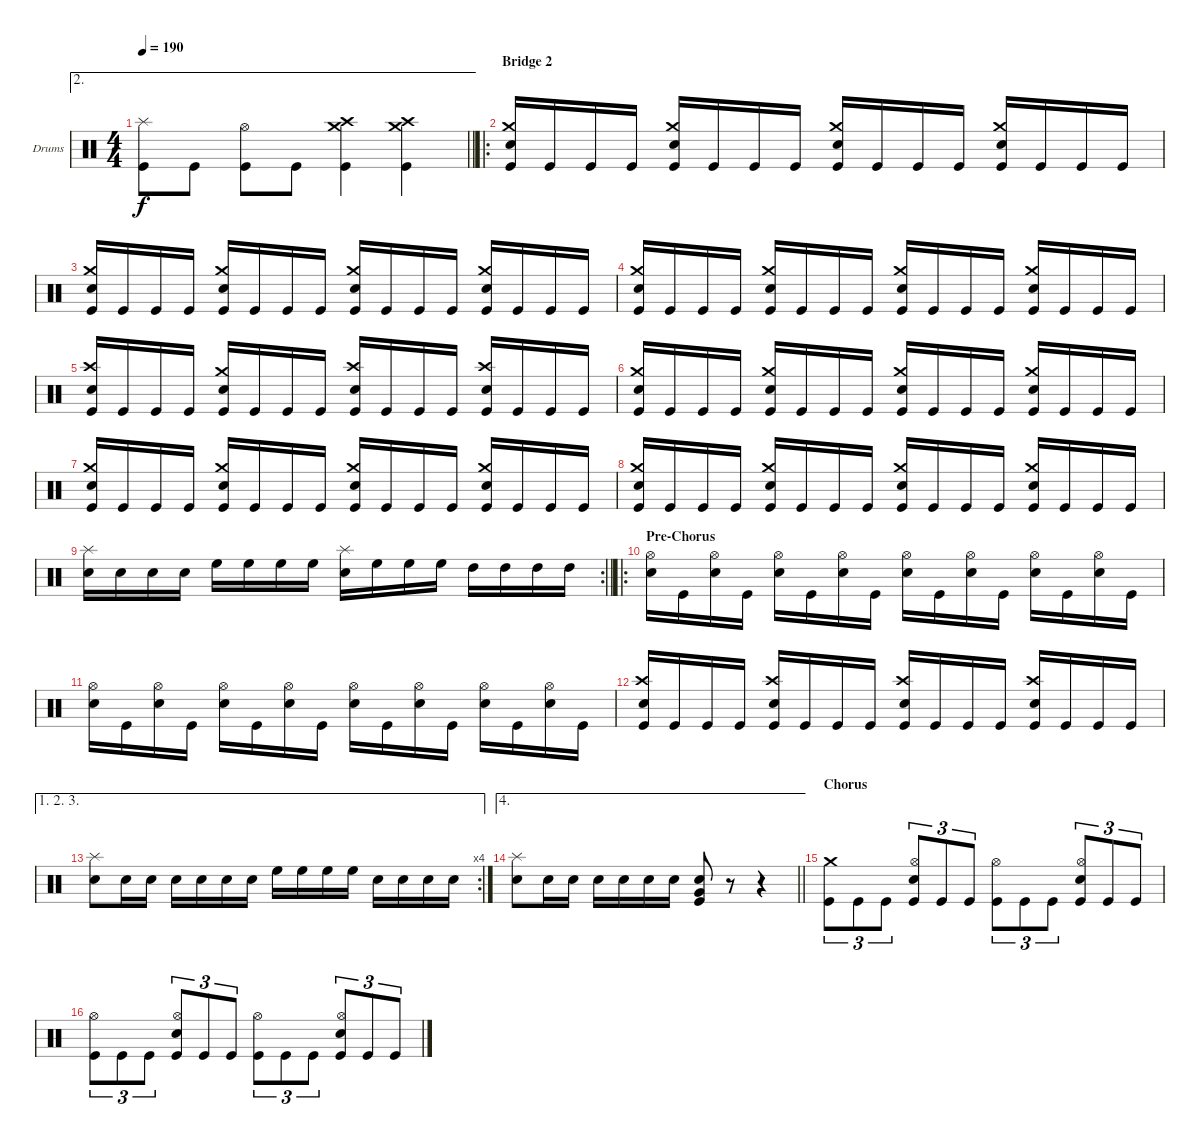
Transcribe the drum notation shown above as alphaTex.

\bracketExtendMode groupsimilarinstruments
\firstSystemTrackNameOrientation horizontal
\otherSystemsTrackNameOrientation horizontal
\track ("Drumkit" "Drums") {instrument percussion}
\staff {score}
\articulation defaults
\ae 2
\ts (4 4)
\tempo 190
\clef neutral
\barLineRight lightlight
\ks c
("Kick (hit)" "Splash (hit)").8{dy f} "Kick (hit)".8 ("Kick (hit)" "Hi-Hat (open)").8 "Kick (hit)".8 ("Kick (hit)" "Crash medium (hit)" "Crash high (hit)").4 ("Kick (hit)" "Crash medium (hit)" "Crash high (hit)").4 |
\ro
\section ("" "Bridge 2")
("Kick (hit)" "Snare (hit) 2" "Crash medium (hit)").16 "Kick (hit)".16 "Kick (hit)".16 "Kick (hit)".16 ("Kick (hit)" "Snare (hit) 2" "Crash medium (hit)").16 "Kick (hit)".16 "Kick (hit)".16 "Kick (hit)".16 ("Kick (hit)" "Snare (hit) 2" "Crash medium (hit)").16 "Kick (hit)".16 "Kick (hit)".16 "Kick (hit)".16 ("Kick (hit)" "Snare (hit) 2" "Crash medium (hit)").16 "Kick (hit)".16 "Kick (hit)".16 "Kick (hit)".16 |
("Kick (hit)" "Snare (hit) 2" "Crash medium (hit)").16 "Kick (hit)".16 "Kick (hit)".16 "Kick (hit)".16 ("Kick (hit)" "Snare (hit) 2" "Crash medium (hit)").16 "Kick (hit)".16 "Kick (hit)".16 "Kick (hit)".16 ("Kick (hit)" "Snare (hit) 2" "Crash medium (hit)").16 "Kick (hit)".16 "Kick (hit)".16 "Kick (hit)".16 ("Kick (hit)" "Snare (hit) 2" "Crash medium (hit)").16 "Kick (hit)".16 "Kick (hit)".16 "Kick (hit)".16 |
("Kick (hit)" "Snare (hit) 2" "Crash medium (hit)").16 "Kick (hit)".16 "Kick (hit)".16 "Kick (hit)".16 ("Kick (hit)" "Snare (hit) 2" "Crash medium (hit)").16 "Kick (hit)".16 "Kick (hit)".16 "Kick (hit)".16 ("Kick (hit)" "Snare (hit) 2" "Crash medium (hit)").16 "Kick (hit)".16 "Kick (hit)".16 "Kick (hit)".16 ("Kick (hit)" "Snare (hit) 2" "Crash medium (hit)").16 "Kick (hit)".16 "Kick (hit)".16 "Kick (hit)".16 |
("Kick (hit)" "Snare (hit) 2" "Crash high (hit)").16 "Kick (hit)".16 "Kick (hit)".16 "Kick (hit)".16 ("Kick (hit)" "Snare (hit) 2" "Crash medium (hit)").16 "Kick (hit)".16 "Kick (hit)".16 "Kick (hit)".16 ("Kick (hit)" "Snare (hit) 2" "Crash high (hit)").16 "Kick (hit)".16 "Kick (hit)".16 "Kick (hit)".16 ("Kick (hit)" "Snare (hit) 2" "Crash high (hit)").16 "Kick (hit)".16 "Kick (hit)".16 "Kick (hit)".16 |
("Kick (hit)" "Snare (hit) 2" "Crash medium (hit)").16 "Kick (hit)".16 "Kick (hit)".16 "Kick (hit)".16 ("Kick (hit)" "Snare (hit) 2" "Crash medium (hit)").16 "Kick (hit)".16 "Kick (hit)".16 "Kick (hit)".16 ("Kick (hit)" "Snare (hit) 2" "Crash medium (hit)").16 "Kick (hit)".16 "Kick (hit)".16 "Kick (hit)".16 ("Kick (hit)" "Snare (hit) 2" "Crash medium (hit)").16 "Kick (hit)".16 "Kick (hit)".16 "Kick (hit)".16 |
("Kick (hit)" "Snare (hit) 2" "Crash medium (hit)").16 "Kick (hit)".16 "Kick (hit)".16 "Kick (hit)".16 ("Kick (hit)" "Snare (hit) 2" "Crash medium (hit)").16 "Kick (hit)".16 "Kick (hit)".16 "Kick (hit)".16 ("Kick (hit)" "Snare (hit) 2" "Crash medium (hit)").16 "Kick (hit)".16 "Kick (hit)".16 "Kick (hit)".16 ("Kick (hit)" "Snare (hit) 2" "Crash medium (hit)").16 "Kick (hit)".16 "Kick (hit)".16 "Kick (hit)".16 |
("Kick (hit)" "Snare (hit) 2" "Crash medium (hit)").16 "Kick (hit)".16 "Kick (hit)".16 "Kick (hit)".16 ("Kick (hit)" "Snare (hit) 2" "Crash medium (hit)").16 "Kick (hit)".16 "Kick (hit)".16 "Kick (hit)".16 ("Kick (hit)" "Snare (hit) 2" "Crash medium (hit)").16 "Kick (hit)".16 "Kick (hit)".16 "Kick (hit)".16 ("Kick (hit)" "Snare (hit) 2" "Crash medium (hit)").16 "Kick (hit)".16 "Kick (hit)".16 "Kick (hit)".16 |
\rc 2
\barLineRight lightlight
("Snare (hit) 2" "Splash (hit)").16 "Snare (hit) 2".16 "Snare (hit) 2".16 "Snare (hit) 2".16 "High Floor Tom (hit)".16 "High Floor Tom (hit)".16 "High Floor Tom (hit)".16 "High Floor Tom (hit)".16 ("Snare (hit) 2" "Splash (hit)").16 "High Floor Tom (hit)".16 "High Floor Tom (hit)".16 "High Floor Tom (hit)".16 "High Tom (hit)".16 "High Tom (hit)".16 "High Tom (hit)".16 "High Tom (hit)".16 |
\ro
\section ("" "Pre-Chorus")
("Snare (hit) 2" "Hi-Hat (open)").16 "Kick (hit)".16 ("Snare (hit) 2" "Hi-Hat (open)").16 "Kick (hit)".16 ("Snare (hit) 2" "Hi-Hat (open)").16 "Kick (hit)".16 ("Snare (hit) 2" "Hi-Hat (open)").16 "Kick (hit)".16 ("Snare (hit) 2" "Hi-Hat (open)").16 "Kick (hit)".16 ("Snare (hit) 2" "Hi-Hat (open)").16 "Kick (hit)".16 ("Snare (hit) 2" "Hi-Hat (open)").16 "Kick (hit)".16 ("Snare (hit) 2" "Hi-Hat (open)").16 "Kick (hit)".16 |
("Snare (hit) 2" "Hi-Hat (open)").16 "Kick (hit)".16 ("Snare (hit) 2" "Hi-Hat (open)").16 "Kick (hit)".16 ("Snare (hit) 2" "Hi-Hat (open)").16 "Kick (hit)".16 ("Snare (hit) 2" "Hi-Hat (open)").16 "Kick (hit)".16 ("Snare (hit) 2" "Hi-Hat (open)").16 "Kick (hit)".16 ("Snare (hit) 2" "Hi-Hat (open)").16 "Kick (hit)".16 ("Snare (hit) 2" "Hi-Hat (open)").16 "Kick (hit)".16 ("Snare (hit) 2" "Hi-Hat (open)").16 "Kick (hit)".16 |
("Kick (hit)" "Snare (hit) 2" "Crash high (hit)").16 "Kick (hit)".16 "Kick (hit)".16 "Kick (hit)".16 ("Kick (hit)" "Snare (hit) 2" "Crash high (hit)").16 "Kick (hit)".16 "Kick (hit)".16 "Kick (hit)".16 ("Kick (hit)" "Snare (hit) 2" "Crash high (hit)").16 "Kick (hit)".16 "Kick (hit)".16 "Kick (hit)".16 ("Kick (hit)" "Snare (hit) 2" "Crash high (hit)").16 "Kick (hit)".16 "Kick (hit)".16 "Kick (hit)".16 |
\ae (1 2 3)
\rc 4
("Snare (hit) 2" "Splash (hit)").8 "Snare (hit) 2".16 "Snare (hit) 2".16 "Snare (hit) 2".16 "Snare (hit) 2".16 "Snare (hit) 2".16 "Snare (hit) 2".16 "High Floor Tom (hit)".16 "High Floor Tom (hit)".16 "High Floor Tom (hit)".16 "High Floor Tom (hit)".16 "Snare (hit) 2".16 "Snare (hit) 2".16 "Snare (hit) 2".16 "Snare (hit) 2".16 |
\ae 4
\barLineRight lightlight
("Snare (hit) 2" "Splash (hit)").8 "Snare (hit) 2".16 "Snare (hit) 2".16 "Snare (hit) 2".16 "Snare (hit) 2".16 "Snare (hit) 2".16 "Snare (hit) 2".16 ("Kick (hit)" "Snare (hit) 2" "Very Low Tom (hit)").8 r.8 r.4 |
\section ("" "Chorus")
("Kick (hit)" "Crash medium (hit)").8{tu (3 2)} "Kick (hit)".8{tu (3 2)} "Kick (hit)".8{tu (3 2)} ("Kick (hit)" "Snare (hit) 2" "Hi-Hat (open)").8{tu (3 2)} "Kick (hit)".8{tu (3 2)} "Kick (hit)".8{tu (3 2)} ("Kick (hit)" "Hi-Hat (open)").8{tu (3 2)} "Kick (hit)".8{tu (3 2)} "Kick (hit)".8{tu (3 2)} ("Kick (hit)" "Snare (hit) 2" "Hi-Hat (open)").8{tu (3 2)} "Kick (hit)".8{tu (3 2)} "Kick (hit)".8{tu (3 2)} |
("Kick (hit)" "Hi-Hat (open)").8{tu (3 2)} "Kick (hit)".8{tu (3 2)} "Kick (hit)".8{tu (3 2)} ("Kick (hit)" "Snare (hit) 2" "Hi-Hat (open)").8{tu (3 2)} "Kick (hit)".8{tu (3 2)} "Kick (hit)".8{tu (3 2)} ("Kick (hit)" "Hi-Hat (open)").8{tu (3 2)} "Kick (hit)".8{tu (3 2)} "Kick (hit)".8{tu (3 2)} ("Kick (hit)" "Snare (hit) 2" "Hi-Hat (open)").8{tu (3 2)} "Kick (hit)".8{tu (3 2)} "Kick (hit)".8{tu (3 2)}
